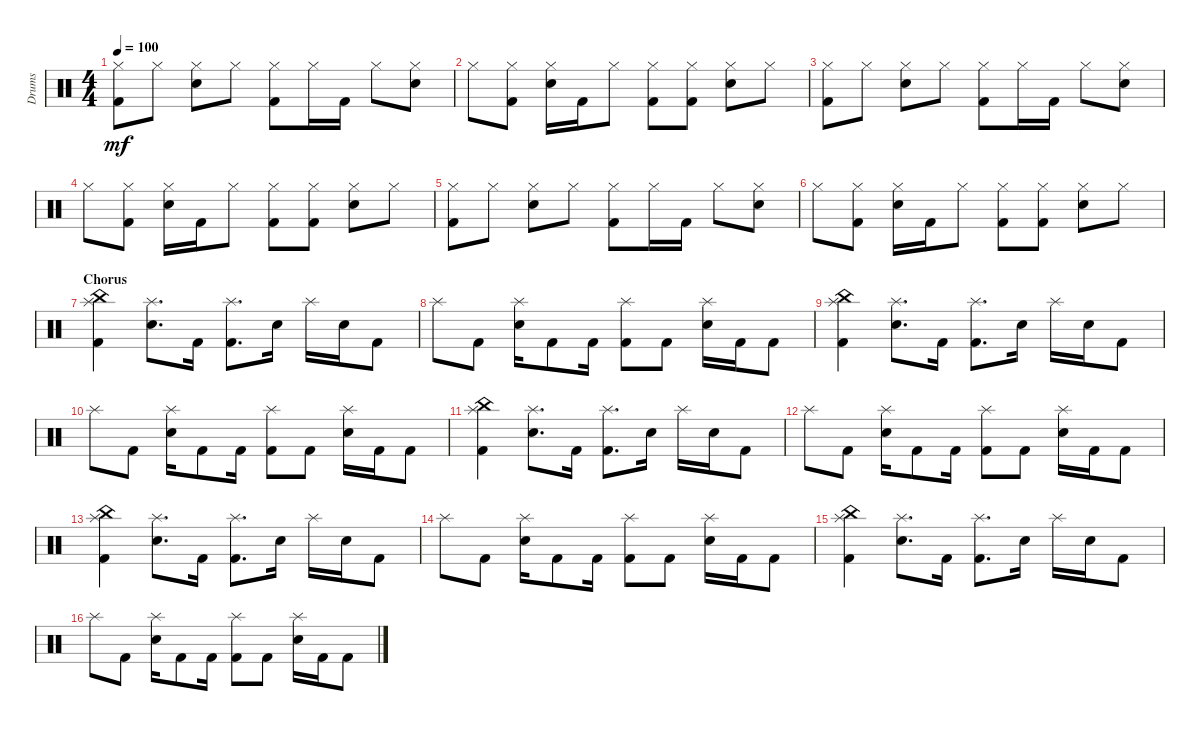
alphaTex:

\defaultSystemsLayout 4
\bracketExtendMode groupsimilarinstruments
\otherSystemsTrackNameOrientation horizontal
\track ("Prakarsh" "Drums") {instrument percussion}
\staff {score}
\articulation defaults
\ts (4 4)
\tempo 100
\clef neutral
\ks c
("Hi-Hat (closed)" "Kick (hit) 2").8{dy mf beam Down} "Hi-Hat (closed)".8{beam Down} ("Hi-Hat (closed)" "Snare (hit) 2").8{beam Down} "Hi-Hat (closed)".8{beam Down} ("Hi-Hat (closed)" "Kick (hit) 2").8{beam Down} "Hi-Hat (closed)".16{beam Down} "Kick (hit) 2".16{beam Down} "Hi-Hat (closed)".8{beam Down} ("Hi-Hat (closed)" "Snare (hit) 2").8{beam Down} |
"Hi-Hat (closed)".8{beam Down} ("Hi-Hat (closed)" "Kick (hit) 2").8{beam Down} ("Hi-Hat (closed)" "Snare (hit) 2").16{beam Down} "Kick (hit) 2".16{beam Down} "Hi-Hat (closed)".8{beam Down} ("Hi-Hat (closed)" "Kick (hit) 2").8{beam Down} ("Hi-Hat (closed)" "Kick (hit) 2").8{beam Down} ("Hi-Hat (closed)" "Snare (hit) 2").8{beam Down} "Hi-Hat (closed)".8{beam Down} |
("Hi-Hat (closed)" "Kick (hit) 2").8{beam Down} "Hi-Hat (closed)".8{beam Down} ("Hi-Hat (closed)" "Snare (hit) 2").8{beam Down} "Hi-Hat (closed)".8{beam Down} ("Hi-Hat (closed)" "Kick (hit) 2").8{beam Down} "Hi-Hat (closed)".16{beam Down} "Kick (hit) 2".16{beam Down} "Hi-Hat (closed)".8{beam Down} ("Hi-Hat (closed)" "Snare (hit) 2").8{beam Down} |
"Hi-Hat (closed)".8{beam Down} ("Hi-Hat (closed)" "Kick (hit) 2").8{beam Down} ("Hi-Hat (closed)" "Snare (hit) 2").16{beam Down} "Kick (hit) 2".16{beam Down} "Hi-Hat (closed)".8{beam Down} ("Hi-Hat (closed)" "Kick (hit) 2").8{beam Down} ("Hi-Hat (closed)" "Kick (hit) 2").8{beam Down} ("Hi-Hat (closed)" "Snare (hit) 2").8{beam Down} "Hi-Hat (closed)".8{beam Down} |
("Hi-Hat (closed)" "Kick (hit) 2").8{beam Down} "Hi-Hat (closed)".8{beam Down} ("Hi-Hat (closed)" "Snare (hit) 2").8{beam Down} "Hi-Hat (closed)".8{beam Down} ("Hi-Hat (closed)" "Kick (hit) 2").8{beam Down} "Hi-Hat (closed)".16{beam Down} "Kick (hit) 2".16{beam Down} "Hi-Hat (closed)".8{beam Down} ("Hi-Hat (closed)" "Snare (hit) 2").8{beam Down} |
"Hi-Hat (closed)".8{beam Down} ("Hi-Hat (closed)" "Kick (hit) 2").8{beam Down} ("Hi-Hat (closed)" "Snare (hit) 2").16{beam Down} "Kick (hit) 2".16{beam Down} "Hi-Hat (closed)".8{beam Down} ("Hi-Hat (closed)" "Kick (hit) 2").8{beam Down} ("Hi-Hat (closed)" "Kick (hit) 2").8{beam Down} ("Hi-Hat (closed)" "Snare (hit) 2").8{beam Down} "Hi-Hat (closed)".8{beam Down} |
\section ("" "Chorus")
("Kick (hit) 2" "China (hit)" "Splash (hit)").4{beam Down} ("Snare (hit) 2" "Splash (hit)").8{d beam Down} "Kick (hit) 2".16{beam Down} ("Kick (hit) 2" "Splash (hit)").8{d beam Down} "Snare (hit) 2".16{beam Down} "Splash (hit)".16{beam Down} "Snare (hit) 2".16{beam Down} "Kick (hit) 2".8{beam Down} |
"Splash (hit)".8{beam Down} "Kick (hit) 2".8{beam Down} ("Snare (hit) 2" "Splash (hit)").16{beam Down} "Kick (hit) 2".8{beam Down} "Kick (hit) 2".16{beam Down} ("Kick (hit) 2" "Splash (hit)").8{beam Down} "Kick (hit) 2".8{beam Down} ("Snare (hit) 2" "Splash (hit)").16{beam Down} "Kick (hit) 2".16{beam Down} "Kick (hit) 2".8{beam Down} |
("Kick (hit) 2" "China (hit)" "Splash (hit)").4{beam Down} ("Snare (hit) 2" "Splash (hit)").8{d beam Down} "Kick (hit) 2".16{beam Down} ("Kick (hit) 2" "Splash (hit)").8{d beam Down} "Snare (hit) 2".16{beam Down} "Splash (hit)".16{beam Down} "Snare (hit) 2".16{beam Down} "Kick (hit) 2".8{beam Down} |
"Splash (hit)".8{beam Down} "Kick (hit) 2".8{beam Down} ("Snare (hit) 2" "Splash (hit)").16{beam Down} "Kick (hit) 2".8{beam Down} "Kick (hit) 2".16{beam Down} ("Kick (hit) 2" "Splash (hit)").8{beam Down} "Kick (hit) 2".8{beam Down} ("Snare (hit) 2" "Splash (hit)").16{beam Down} "Kick (hit) 2".16{beam Down} "Kick (hit) 2".8{beam Down} |
("Kick (hit) 2" "China (hit)" "Splash (hit)").4{beam Down} ("Snare (hit) 2" "Splash (hit)").8{d beam Down} "Kick (hit) 2".16{beam Down} ("Kick (hit) 2" "Splash (hit)").8{d beam Down} "Snare (hit) 2".16{beam Down} "Splash (hit)".16{beam Down} "Snare (hit) 2".16{beam Down} "Kick (hit) 2".8{beam Down} |
"Splash (hit)".8{beam Down} "Kick (hit) 2".8{beam Down} ("Snare (hit) 2" "Splash (hit)").16{beam Down} "Kick (hit) 2".8{beam Down} "Kick (hit) 2".16{beam Down} ("Kick (hit) 2" "Splash (hit)").8{beam Down} "Kick (hit) 2".8{beam Down} ("Snare (hit) 2" "Splash (hit)").16{beam Down} "Kick (hit) 2".16{beam Down} "Kick (hit) 2".8{beam Down} |
("Kick (hit) 2" "China (hit)" "Splash (hit)").4{beam Down} ("Snare (hit) 2" "Splash (hit)").8{d beam Down} "Kick (hit) 2".16{beam Down} ("Kick (hit) 2" "Splash (hit)").8{d beam Down} "Snare (hit) 2".16{beam Down} "Splash (hit)".16{beam Down} "Snare (hit) 2".16{beam Down} "Kick (hit) 2".8{beam Down} |
"Splash (hit)".8{beam Down} "Kick (hit) 2".8{beam Down} ("Snare (hit) 2" "Splash (hit)").16{beam Down} "Kick (hit) 2".8{beam Down} "Kick (hit) 2".16{beam Down} ("Kick (hit) 2" "Splash (hit)").8{beam Down} "Kick (hit) 2".8{beam Down} ("Snare (hit) 2" "Splash (hit)").16{beam Down} "Kick (hit) 2".16{beam Down} "Kick (hit) 2".8{beam Down} |
("Kick (hit) 2" "China (hit)" "Splash (hit)").4{beam Down} ("Snare (hit) 2" "Splash (hit)").8{d beam Down} "Kick (hit) 2".16{beam Down} ("Kick (hit) 2" "Splash (hit)").8{d beam Down} "Snare (hit) 2".16{beam Down} "Splash (hit)".16{beam Down} "Snare (hit) 2".16{beam Down} "Kick (hit) 2".8{beam Down} |
"Splash (hit)".8{beam Down} "Kick (hit) 2".8{beam Down} ("Snare (hit) 2" "Splash (hit)").16{beam Down} "Kick (hit) 2".8{beam Down} "Kick (hit) 2".16{beam Down} ("Kick (hit) 2" "Splash (hit)").8{beam Down} "Kick (hit) 2".8{beam Down} ("Snare (hit) 2" "Splash (hit)").16{beam Down} "Kick (hit) 2".16{beam Down} "Kick (hit) 2".8{beam Down}
